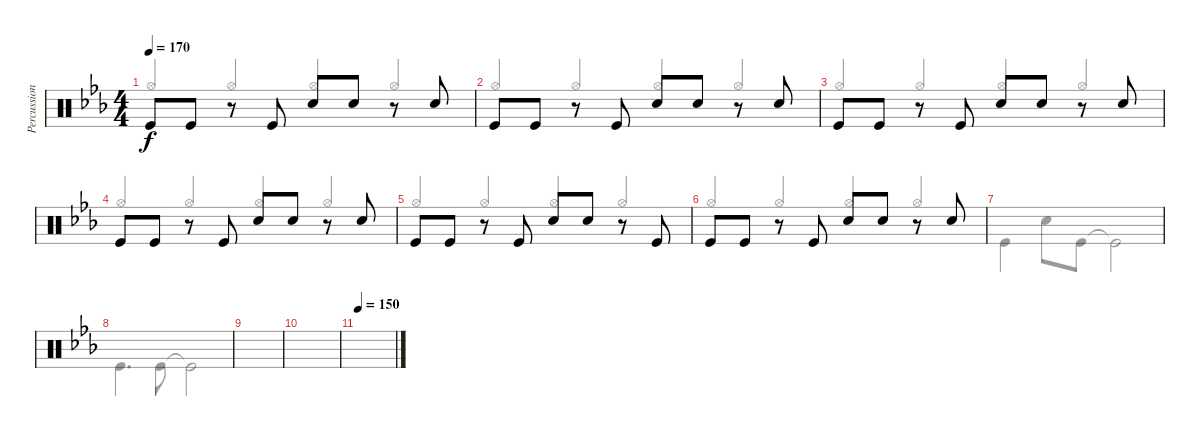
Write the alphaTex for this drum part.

\track ("Percussion" "Percussion") {instrument percussion}
\staff {score}
\articulation defaults
\voice
\ts (4 4)
\tempo 170
\clef neutral
\ks eb "Kick (hit)".8{dy f} "Kick (hit)".8
r.8 "Kick (hit)".8 "Snare (hit) 2".8 "Snare (hit) 2".8 r.8 "Snare (hit) 2".8 |
"Kick (hit)".8 "Kick (hit)".8 r.8 "Kick (hit)".8 "Snare (hit) 2".8 "Snare (hit) 2".8 r.8 "Snare (hit) 2".8 |
"Kick (hit)".8 "Kick (hit)".8 r.8 "Kick (hit)".8 "Snare (hit) 2".8 "Snare (hit) 2".8 r.8 "Snare (hit) 2".8 |
"Kick (hit)".8 "Kick (hit)".8 r.8 "Kick (hit)".8 "Snare (hit) 2".8 "Snare (hit) 2".8 r.8 "Snare (hit) 2".8 |
"Kick (hit)".8 "Kick (hit)".8 r.8 "Kick (hit)".8 "Snare (hit) 2".8 "Snare (hit) 2".8 r.8 "Kick (hit)".8 |
"Kick (hit)".8 "Kick (hit)".8 r.8 "Kick (hit)".8 "Snare (hit) 2".8 "Snare (hit) 2".8 r.8 "Snare (hit) 2".8 |
|
|
|
|
\tempo 150
|
\voice
\clef neutral
\ottava regular
\simile none
\ks eb "Hi-Hat (open)".4{dy f beam Up} "Hi-Hat (open)".4{beam Up} "Hi-Hat (open)".4{beam Up} "Hi-Hat (open)".4{beam Up}
|
"Hi-Hat (open)".4{beam Up} "Hi-Hat (open)".4{beam Up} "Hi-Hat (open)".4{beam Up} "Hi-Hat (open)".4{beam Up} |
"Hi-Hat (open)".4{beam Up} "Hi-Hat (open)".4{beam Up} "Hi-Hat (open)".4{beam Up} "Hi-Hat (open)".4{beam Up} |
"Hi-Hat (open)".4{beam Up} "Hi-Hat (open)".4{beam Up} "Hi-Hat (open)".4{beam Up} "Hi-Hat (open)".4{beam Up} |
"Hi-Hat (open)".4{beam Up} "Hi-Hat (open)".4{beam Up} "Hi-Hat (open)".4{beam Up} "Hi-Hat (open)".4{beam Up} |
"Hi-Hat (open)".4{beam Up} "Hi-Hat (open)".4{beam Up} "Hi-Hat (open)".4{beam Up} "Hi-Hat (open)".4{beam Up} |
"Kick (hit)".4 "Snare (hit) 2".8 "Kick (hit)".8 "Kick (hit)"{t}.2 |
"Kick (hit)".4{d} "Kick (hit)".8 "Kick (hit)"{t}.2 |
|
|
|
